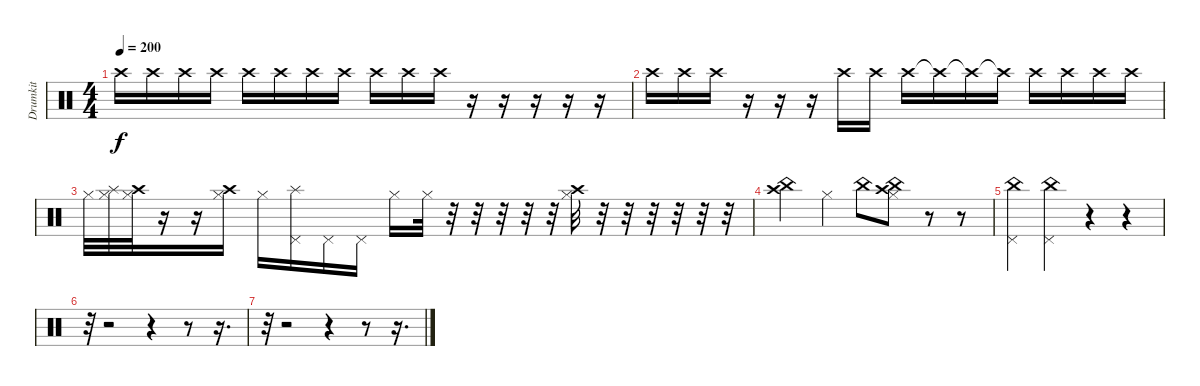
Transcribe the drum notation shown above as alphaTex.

\track ("Drumkit" "Drumkit") {instrument percussion}
\staff {score}
\articulation defaults
\ts (4 4)
\tempo 200
\clef neutral
\ks c "Crash high (hit)".16{dy f} "Crash high (hit)".16 "Crash high (hit)".16 "Crash high (hit)".16 "Crash high (hit)".16 "Crash high (hit)".16 "Crash high (hit)".16 "Crash high (hit)".16 "Crash high (hit)".16 "Crash high (hit)".16 "Crash high (hit)".16
r.16 r.16 r.16 r.16 r.16 |
"Crash high (hit)".16 "Crash high (hit)".16 "Crash high (hit)".16 r.16 r.16 r.16 "Crash high (hit)".16 "Crash high (hit)".16 "Crash high (hit)".16 "Crash high (hit)"{t}.16 "Crash high (hit)"{t}.16 "Crash high (hit)"{t}.16 "Crash high (hit)".16 "Crash high (hit)".16 "Crash high (hit)".16 "Crash high (hit)".16 |
"Hi-Hat (closed)".32 ("Splash (hit)" "Hi-Hat (closed)").32 ("Crash high (hit)" "Hi-Hat (closed)").32 r.16 r.16 ("Crash high (hit)" "Hi-Hat (closed)").16 "Hi-Hat (closed)".16 ("Splash (hit)" "Pedal Hi-Hat (hit)").16 "Pedal Hi-Hat (hit)".16 "Pedal Hi-Hat (hit)".16 "Hi-Hat (closed)".16 "Hi-Hat (closed)".32 r.32 r.32 r.32 r.32 r.32 ("Crash high (hit)" "Hi-Hat (closed)").32 r.32 r.32 r.32 r.32 r.32 r.32 |
("China (hit)" "Crash high (hit)").4 "Hi-Hat (closed)".4 "China (hit)".8 ("China (hit)" "Hi-Hat (closed)" "Crash high (hit)").8 r.8 r.8 |
("China (hit)" "Pedal Hi-Hat (hit)").4 ("China (hit)" "Pedal Hi-Hat (hit)").4 r.4 r.4 |
r.32 r.2 r.4 r.8 r.16{d} |
r.32 r.2 r.4 r.8 r.16{d}
